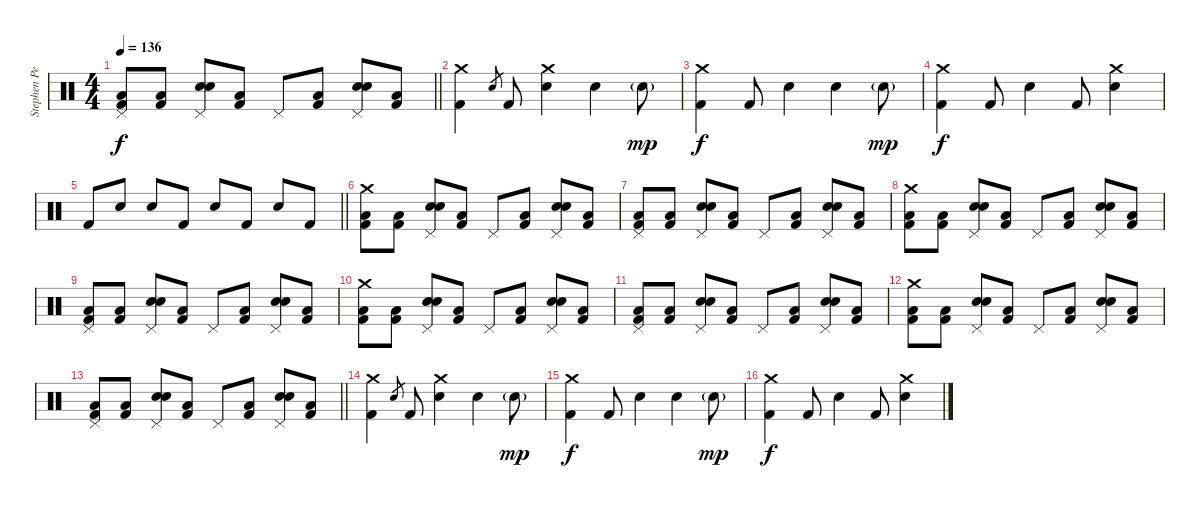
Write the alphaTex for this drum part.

\track ("Stephen Perkins (Drums)" "Stephen Pe") {instrument percussion}
\staff {score}
\articulation defaults
\ts (4 4)
\tempo 136
\clef neutral
\barLineRight lightlight
\ks c
("Pedal Hi-Hat (hit)" "Low Floor Tom (hit)" "Kick (hit) 2").8{dy f} ("Low Floor Tom (hit)" "Kick (hit) 2").8 ("Pedal Hi-Hat (hit)" "Electric Snare (hit)" "Snare (hit) 2").8 ("Low Floor Tom (hit)" "Kick (hit) 2").8 "Pedal Hi-Hat (hit)".8 ("Low Floor Tom (hit)" "Kick (hit) 2").8 ("Pedal Hi-Hat (hit)" "Electric Snare (hit)" "Snare (hit) 2").8 ("Low Tom (hit)" "Kick (hit) 2").8 |
("Crash medium (hit)" "Kick (hit) 2").4 "Electric Snare (hit)".8{gr} "Kick (hit) 2".8 ("Crash medium (hit)" "Electric Snare (hit)").4 "Electric Snare (hit)".4 "Electric Snare (hit)"{g}.8{dy mp} |
("Crash medium (hit)" "Kick (hit) 2").4{dy f} "Kick (hit) 2".8 "Electric Snare (hit)".4 "Electric Snare (hit)".4 "Electric Snare (hit)"{g}.8{dy mp} |
("Crash medium (hit)" "Kick (hit) 2").4{dy f} "Kick (hit) 2".8 "Electric Snare (hit)".4 "Kick (hit) 2".8 ("Crash medium (hit)" "Electric Snare (hit)").4 |
\barLineRight lightlight "Kick (hit) 2".8 "Electric Snare (hit)".8 "Electric Snare (hit)".8 "Kick (hit) 2".8 "Electric Snare (hit)".8 "Kick (hit) 2".8 "Electric Snare (hit)".8 "Kick (hit) 2".8
|
("Crash medium (hit)" "Low Floor Tom (hit)" "Kick (hit) 2").8 ("Low Floor Tom (hit)" "Kick (hit) 2").8 ("Pedal Hi-Hat (hit)" "Electric Snare (hit)" "Snare (hit) 2").8 ("Low Floor Tom (hit)" "Kick (hit) 2").8 "Pedal Hi-Hat (hit)".8 ("Low Floor Tom (hit)" "Kick (hit) 2").8 ("Pedal Hi-Hat (hit)" "Electric Snare (hit)" "Snare (hit) 2").8 ("Low Tom (hit)" "Kick (hit) 2").8 |
("Pedal Hi-Hat (hit)" "Low Floor Tom (hit)" "Kick (hit) 2").8 ("Low Floor Tom (hit)" "Kick (hit) 2").8 ("Pedal Hi-Hat (hit)" "Electric Snare (hit)" "Snare (hit) 2").8 ("Low Floor Tom (hit)" "Kick (hit) 2").8 "Pedal Hi-Hat (hit)".8 ("Low Floor Tom (hit)" "Kick (hit) 2").8 ("Pedal Hi-Hat (hit)" "Electric Snare (hit)" "Snare (hit) 2").8 ("Low Tom (hit)" "Kick (hit) 2").8 |
("Crash medium (hit)" "Low Floor Tom (hit)" "Kick (hit) 2").8 ("Low Floor Tom (hit)" "Kick (hit) 2").8 ("Pedal Hi-Hat (hit)" "Electric Snare (hit)" "Snare (hit) 2").8 ("Low Floor Tom (hit)" "Kick (hit) 2").8 "Pedal Hi-Hat (hit)".8 ("Low Floor Tom (hit)" "Kick (hit) 2").8 ("Pedal Hi-Hat (hit)" "Electric Snare (hit)" "Snare (hit) 2").8 ("Low Tom (hit)" "Kick (hit) 2").8 |
("Pedal Hi-Hat (hit)" "Low Floor Tom (hit)" "Kick (hit) 2").8 ("Low Floor Tom (hit)" "Kick (hit) 2").8 ("Pedal Hi-Hat (hit)" "Electric Snare (hit)" "Snare (hit) 2").8 ("Low Floor Tom (hit)" "Kick (hit) 2").8 "Pedal Hi-Hat (hit)".8 ("Low Floor Tom (hit)" "Kick (hit) 2").8 ("Pedal Hi-Hat (hit)" "Electric Snare (hit)" "Snare (hit) 2").8 ("Low Tom (hit)" "Kick (hit) 2").8 |
("Crash medium (hit)" "Low Floor Tom (hit)" "Kick (hit) 2").8 ("Low Floor Tom (hit)" "Kick (hit) 2").8 ("Pedal Hi-Hat (hit)" "Electric Snare (hit)" "Snare (hit) 2").8 ("Low Floor Tom (hit)" "Kick (hit) 2").8 "Pedal Hi-Hat (hit)".8 ("Low Floor Tom (hit)" "Kick (hit) 2").8 ("Pedal Hi-Hat (hit)" "Electric Snare (hit)" "Snare (hit) 2").8 ("Low Tom (hit)" "Kick (hit) 2").8 |
("Pedal Hi-Hat (hit)" "Low Floor Tom (hit)" "Kick (hit) 2").8 ("Low Floor Tom (hit)" "Kick (hit) 2").8 ("Pedal Hi-Hat (hit)" "Electric Snare (hit)" "Snare (hit) 2").8 ("Low Floor Tom (hit)" "Kick (hit) 2").8 "Pedal Hi-Hat (hit)".8 ("Low Floor Tom (hit)" "Kick (hit) 2").8 ("Pedal Hi-Hat (hit)" "Electric Snare (hit)" "Snare (hit) 2").8 ("Low Tom (hit)" "Kick (hit) 2").8 |
("Crash medium (hit)" "Low Floor Tom (hit)" "Kick (hit) 2").8 ("Low Floor Tom (hit)" "Kick (hit) 2").8 ("Pedal Hi-Hat (hit)" "Electric Snare (hit)" "Snare (hit) 2").8 ("Low Floor Tom (hit)" "Kick (hit) 2").8 "Pedal Hi-Hat (hit)".8 ("Low Floor Tom (hit)" "Kick (hit) 2").8 ("Pedal Hi-Hat (hit)" "Electric Snare (hit)" "Snare (hit) 2").8 ("Low Tom (hit)" "Kick (hit) 2").8 |
\barLineRight lightlight
("Pedal Hi-Hat (hit)" "Low Floor Tom (hit)" "Kick (hit) 2").8 ("Low Floor Tom (hit)" "Kick (hit) 2").8 ("Pedal Hi-Hat (hit)" "Electric Snare (hit)" "Snare (hit) 2").8 ("Low Floor Tom (hit)" "Kick (hit) 2").8 "Pedal Hi-Hat (hit)".8 ("Low Floor Tom (hit)" "Kick (hit) 2").8 ("Pedal Hi-Hat (hit)" "Electric Snare (hit)" "Snare (hit) 2").8 ("Low Tom (hit)" "Kick (hit) 2").8 |
("Crash medium (hit)" "Kick (hit) 2").4 "Electric Snare (hit)".8{gr} "Kick (hit) 2".8 ("Crash medium (hit)" "Electric Snare (hit)").4 "Electric Snare (hit)".4 "Electric Snare (hit)"{g}.8{dy mp} |
("Crash medium (hit)" "Kick (hit) 2").4{dy f} "Kick (hit) 2".8 "Electric Snare (hit)".4 "Electric Snare (hit)".4 "Electric Snare (hit)"{g}.8{dy mp} |
("Crash medium (hit)" "Kick (hit) 2").4{dy f} "Kick (hit) 2".8 "Electric Snare (hit)".4 "Kick (hit) 2".8 ("Crash medium (hit)" "Electric Snare (hit)").4
